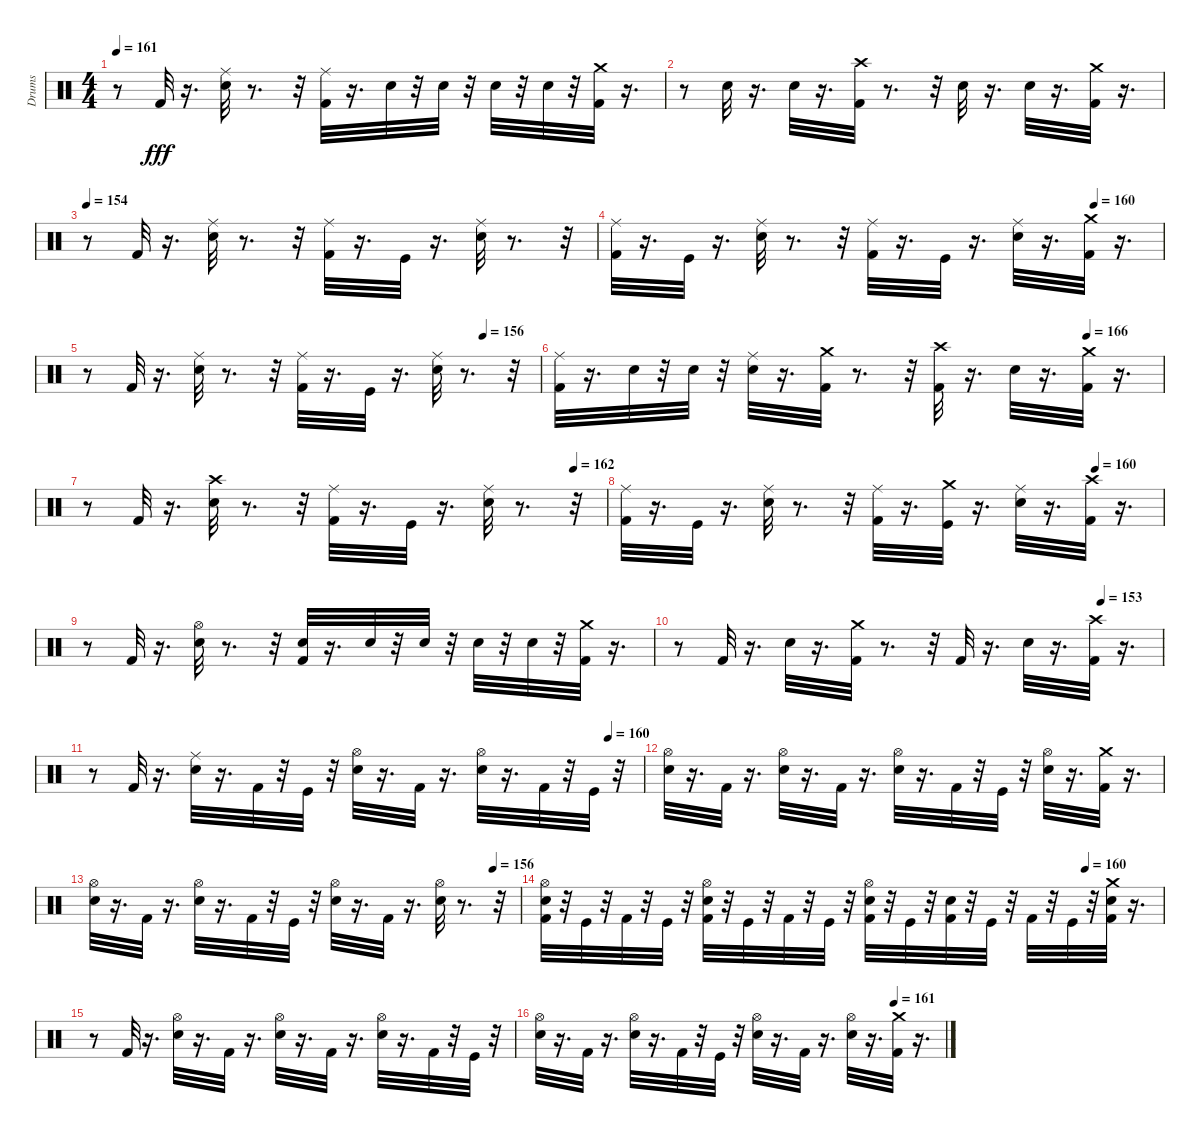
\track ("Drums" "Drums") {instrument percussion}
\staff {score}
\articulation defaults
\ts (4 4)
\tempo 161
\clef neutral
\ks c
r.8{dy fff} "Kick (hit) 2".32 r.16{d} ("Snare (hit) 2" "Ride (middle)").32 r.8{d} r.32 ("Kick (hit) 2" "Ride (middle)").32 r.16{d} "Snare (hit) 2".32 r.32 "Snare (hit) 2".32 r.32 "Snare (hit) 2".32 r.32 "Snare (hit) 2".32 r.32 ("Kick (hit) 2" "Crash medium (hit)").32 r.16{d} |
r.8 "Snare (hit) 2".32 r.16{d} "Snare (hit) 2".32 r.16{d} ("Kick (hit) 2" "Crash high (hit)").32 r.8{d} r.32 "Snare (hit) 2".32 r.16{d} "Snare (hit) 2".32 r.16{d} ("Kick (hit) 2" "Crash medium (hit)").32 r.16{d} |
\tempo 154
r.8 "Kick (hit) 2".32 r.16{d} ("Snare (hit) 2" "Ride (middle)").32 r.8{d} r.32 ("Kick (hit) 2" "Ride (middle)").32 r.16{d} "Kick (hit)".32 r.16{d} ("Snare (hit) 2" "Ride (middle)").32 r.8{d} r.32 |
\tempo (160 0.875)
("Kick (hit) 2" "Ride (middle)").32 r.16{d} "Kick (hit)".32 r.16{d} ("Snare (hit) 2" "Ride (middle)").32 r.8{d} r.32 ("Ride (middle)" "Kick (hit) 2").32 r.16{d} "Kick (hit)".32 r.16{d} ("Snare (hit) 2" "Ride (middle)").32 r.16{d} ("Kick (hit) 2" "Crash medium (hit)").32 r.16{d} |
\tempo (156 0.875)
r.8 "Kick (hit) 2".32 r.16{d} ("Snare (hit) 2" "Ride (middle)").32 r.8{d} r.32 ("Kick (hit) 2" "Ride (middle)").32 r.16{d} "Kick (hit)".32 r.16{d} ("Snare (hit) 2" "Ride (middle)").32 r.8{d} r.32 |
\tempo (166 0.875)
("Kick (hit) 2" "Ride (middle)").32 r.16{d} "Snare (hit) 2".32 r.32 "Snare (hit) 2".32 r.32 ("Snare (hit) 2" "Ride (middle)").32 r.16{d} ("Kick (hit) 2" "Crash medium (hit)").32 r.8{d} r.32 ("Kick (hit) 2" "Crash high (hit)").32 r.16{d} "Snare (hit) 2".32 r.16{d} ("Kick (hit) 2" "Crash medium (hit)").32 r.16{d} |
\tempo (162 0.9375)
r.8 "Kick (hit) 2".32 r.16{d} ("Snare (hit) 2" "Crash high (hit)").32 r.8{d} r.32 ("Kick (hit) 2" "Ride (middle)").32 r.16{d} "Kick (hit)".32 r.16{d} ("Snare (hit) 2" "Ride (middle)").32 r.8{d} r.32 |
\tempo (160 0.875)
("Kick (hit) 2" "Ride (middle)").32 r.16{d} "Kick (hit)".32 r.16{d} ("Snare (hit) 2" "Ride (middle)").32 r.8{d} r.32 ("Kick (hit) 2" "Ride (middle)").32 r.16{d} ("Kick (hit)" "Crash medium (hit)").32 r.16{d} ("Snare (hit) 2" "Ride (middle)").32 r.16{d} ("Kick (hit) 2" "Crash high (hit)").32 r.16{d} |
r.8 "Kick (hit) 2".32 r.16{d} ("Snare (hit) 2" "Hi-Hat (open)").32 r.8{d} r.32 ("Snare (hit) 2" "Kick (hit) 2").32 r.16{d} "Snare (hit) 2".32 r.32 "Snare (hit) 2".32 r.32 "Snare (hit) 2".32 r.32 "Snare (hit) 2".32 r.32 ("Crash medium (hit)" "Kick (hit) 2").32 r.16{d} |
\tempo (153 0.875)
r.8 "Kick (hit) 2".32 r.16{d} "Snare (hit) 2".32 r.16{d} ("Crash medium (hit)" "Kick (hit) 2").32 r.8{d} r.32 "Kick (hit) 2".32 r.16{d} "Snare (hit) 2".32 r.16{d} ("Crash high (hit)" "Kick (hit) 2").32 r.16{d} |
\tempo (160 0.9375)
r.8 "Kick (hit) 2".32 r.16{d} ("Snare (hit) 2" "Ride (middle)").32 r.16{d} "Kick (hit) 2".32 r.32 "Kick (hit)".32 r.32 ("Snare (hit) 2" "Hi-Hat (open)").32 r.16{d} "Kick (hit) 2".32 r.16{d} ("Snare (hit) 2" "Hi-Hat (open)").32 r.16{d} "Kick (hit) 2".32 r.32 "Kick (hit)".32 r.32 |
("Snare (hit) 2" "Hi-Hat (open)").32 r.16{d} "Kick (hit) 2".32 r.16{d} ("Snare (hit) 2" "Hi-Hat (open)").32 r.16{d} "Kick (hit) 2".32 r.16{d} ("Snare (hit) 2" "Hi-Hat (open)").32 r.16{d} "Kick (hit) 2".32 r.32 "Kick (hit)".32 r.32 ("Snare (hit) 2" "Hi-Hat (open)").32 r.16{d} ("Kick (hit) 2" "Crash medium (hit)").32 r.16{d} |
\tempo (156 0.9375)
("Snare (hit) 2" "Hi-Hat (open)").32 r.16{d} "Kick (hit) 2".32 r.16{d} ("Snare (hit) 2" "Hi-Hat (open)").32 r.16{d} "Kick (hit) 2".32 r.32 "Kick (hit)".32 r.32 ("Snare (hit) 2" "Hi-Hat (open)").32 r.16{d} "Kick (hit) 2".32 r.16{d} ("Snare (hit) 2" "Hi-Hat (open)").32 r.8{d} r.32 |
\tempo (160 0.875)
("Kick (hit) 2" "Snare (hit) 2" "Hi-Hat (open)").32 r.32 "Kick (hit)".32 r.32 "Kick (hit) 2".32 r.32 "Kick (hit)".32 r.32 ("Kick (hit) 2" "Snare (hit) 2" "Hi-Hat (open)").32 r.32 "Kick (hit)".32 r.32 "Kick (hit) 2".32 r.32 "Kick (hit)".32 r.32 ("Kick (hit) 2" "Snare (hit) 2" "Hi-Hat (open)").32 r.32 "Kick (hit)".32 r.32 ("Kick (hit) 2" "Snare (hit) 2").32 r.32 "Kick (hit)".32 r.32 "Kick (hit) 2".32 r.32 "Kick (hit)".32 r.32 ("Kick (hit) 2" "Snare (hit) 2" "Crash medium (hit)").32 r.16{d} |
r.8 "Kick (hit) 2".32 r.16{d} ("Snare (hit) 2" "Hi-Hat (open)").32 r.16{d} "Kick (hit) 2".32 r.16{d} ("Snare (hit) 2" "Hi-Hat (open)").32 r.16{d} "Kick (hit) 2".32 r.16{d} ("Snare (hit) 2" "Hi-Hat (open)").32 r.16{d} "Kick (hit) 2".32 r.32 "Kick (hit)".32 r.32 |
\tempo (161 0.875)
("Snare (hit) 2" "Hi-Hat (open)").32 r.16{d} "Kick (hit) 2".32 r.16{d} ("Snare (hit) 2" "Hi-Hat (open)").32 r.16{d} "Kick (hit) 2".32 r.32 "Kick (hit)".32 r.32 ("Snare (hit) 2" "Hi-Hat (open)").32 r.16{d} "Kick (hit) 2".32 r.16{d} ("Snare (hit) 2" "Hi-Hat (open)").32 r.16{d} ("Kick (hit) 2" "Crash medium (hit)").32 r.16{d}
